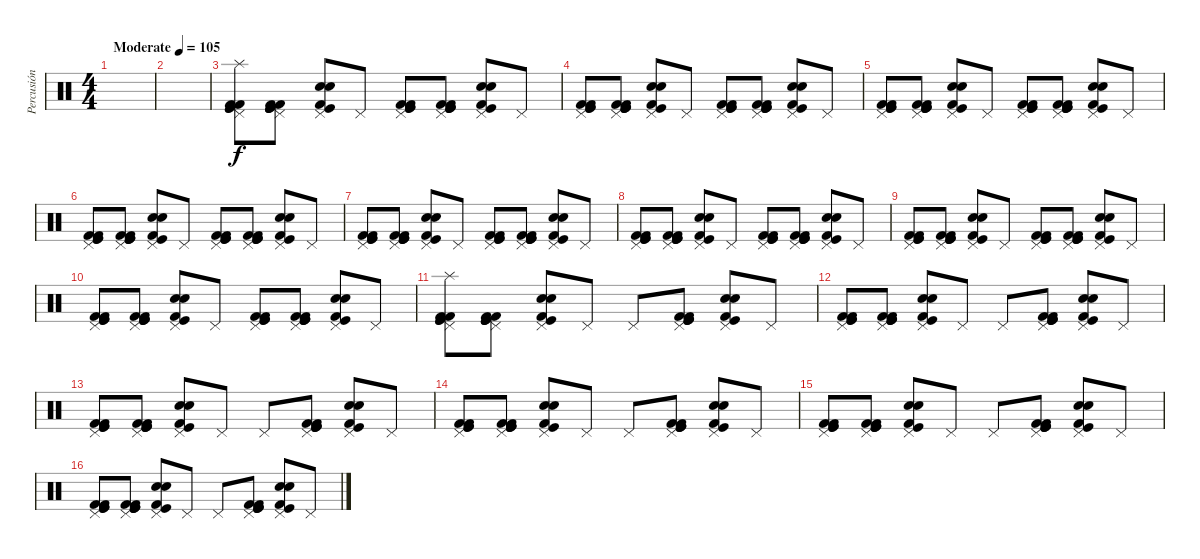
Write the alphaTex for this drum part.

\track ("Percusión" "Percusión") {instrument percussion}
\staff {score}
\articulation defaults
\ts (4 4)
\tempo (105 "Moderate")
\clef neutral
\ks c
|
|
("Kick (hit) 2" "Kick (hit)" "Pedal Hi-Hat (hit)" "Splash (hit)" "Kick (hit) 2" "Kick (hit)").8 ("Kick (hit) 2" "Kick (hit)" "Pedal Hi-Hat (hit)" "Kick (hit) 2" "Kick (hit)" "Kick (hit)").8 ("Snare (hit) 2" "Pedal Hi-Hat (hit)" "Electric Snare (hit)" "Kick (hit)" "Kick (hit) 2").8 "Pedal Hi-Hat (hit)".8 ("Kick (hit) 2" "Kick (hit)" "Pedal Hi-Hat (hit)" "Kick (hit) 2" "Kick (hit)").8 ("Kick (hit) 2" "Kick (hit)" "Pedal Hi-Hat (hit)" "Kick (hit) 2" "Kick (hit)" "Kick (hit)").8 ("Snare (hit) 2" "Pedal Hi-Hat (hit)" "Electric Snare (hit)" "Kick (hit)" "Kick (hit) 2").8 "Pedal Hi-Hat (hit)".8 |
("Kick (hit) 2" "Kick (hit)" "Pedal Hi-Hat (hit)" "Kick (hit) 2" "Kick (hit)").8 ("Kick (hit) 2" "Kick (hit)" "Pedal Hi-Hat (hit)" "Kick (hit) 2" "Kick (hit)" "Kick (hit)").8 ("Snare (hit) 2" "Pedal Hi-Hat (hit)" "Electric Snare (hit)" "Kick (hit)" "Kick (hit) 2").8 "Pedal Hi-Hat (hit)".8 ("Kick (hit) 2" "Kick (hit)" "Pedal Hi-Hat (hit)" "Kick (hit) 2" "Kick (hit)").8 ("Kick (hit) 2" "Kick (hit)" "Pedal Hi-Hat (hit)" "Kick (hit) 2" "Kick (hit)" "Kick (hit)").8 ("Snare (hit) 2" "Pedal Hi-Hat (hit)" "Electric Snare (hit)" "Kick (hit)" "Kick (hit) 2").8 "Pedal Hi-Hat (hit)".8 |
("Kick (hit) 2" "Kick (hit)" "Pedal Hi-Hat (hit)" "Kick (hit) 2" "Kick (hit)").8 ("Kick (hit) 2" "Kick (hit)" "Pedal Hi-Hat (hit)" "Kick (hit) 2" "Kick (hit)" "Kick (hit)").8 ("Snare (hit) 2" "Pedal Hi-Hat (hit)" "Electric Snare (hit)" "Kick (hit)" "Kick (hit) 2").8 "Pedal Hi-Hat (hit)".8 ("Kick (hit) 2" "Kick (hit)" "Pedal Hi-Hat (hit)" "Kick (hit) 2" "Kick (hit)").8 ("Kick (hit) 2" "Kick (hit)" "Pedal Hi-Hat (hit)" "Kick (hit) 2" "Kick (hit)" "Kick (hit)").8 ("Snare (hit) 2" "Pedal Hi-Hat (hit)" "Electric Snare (hit)" "Kick (hit)" "Kick (hit) 2").8 "Pedal Hi-Hat (hit)".8 |
("Kick (hit) 2" "Kick (hit)" "Pedal Hi-Hat (hit)" "Kick (hit) 2" "Kick (hit)").8 ("Kick (hit) 2" "Kick (hit)" "Pedal Hi-Hat (hit)" "Kick (hit) 2" "Kick (hit)" "Kick (hit)").8 ("Snare (hit) 2" "Pedal Hi-Hat (hit)" "Electric Snare (hit)" "Kick (hit)" "Kick (hit) 2").8 "Pedal Hi-Hat (hit)".8 ("Kick (hit) 2" "Kick (hit)" "Pedal Hi-Hat (hit)" "Kick (hit) 2" "Kick (hit)").8 ("Kick (hit) 2" "Kick (hit)" "Pedal Hi-Hat (hit)" "Kick (hit) 2" "Kick (hit)" "Kick (hit)").8 ("Snare (hit) 2" "Pedal Hi-Hat (hit)" "Electric Snare (hit)" "Kick (hit)" "Kick (hit) 2").8 "Pedal Hi-Hat (hit)".8 |
("Kick (hit) 2" "Kick (hit)" "Pedal Hi-Hat (hit)" "Kick (hit) 2" "Kick (hit)").8 ("Kick (hit) 2" "Kick (hit)" "Pedal Hi-Hat (hit)" "Kick (hit) 2" "Kick (hit)" "Kick (hit)").8 ("Snare (hit) 2" "Pedal Hi-Hat (hit)" "Electric Snare (hit)" "Kick (hit)" "Kick (hit) 2").8 "Pedal Hi-Hat (hit)".8 ("Kick (hit) 2" "Kick (hit)" "Pedal Hi-Hat (hit)" "Kick (hit) 2" "Kick (hit)").8 ("Kick (hit) 2" "Kick (hit)" "Pedal Hi-Hat (hit)" "Kick (hit) 2" "Kick (hit)" "Kick (hit)").8 ("Snare (hit) 2" "Pedal Hi-Hat (hit)" "Electric Snare (hit)" "Kick (hit)" "Kick (hit) 2").8 "Pedal Hi-Hat (hit)".8 |
("Kick (hit) 2" "Kick (hit)" "Pedal Hi-Hat (hit)" "Kick (hit) 2" "Kick (hit)").8 ("Kick (hit) 2" "Kick (hit)" "Pedal Hi-Hat (hit)" "Kick (hit) 2" "Kick (hit)" "Kick (hit)").8 ("Snare (hit) 2" "Pedal Hi-Hat (hit)" "Electric Snare (hit)" "Kick (hit)" "Kick (hit) 2").8 "Pedal Hi-Hat (hit)".8 ("Kick (hit) 2" "Kick (hit)" "Pedal Hi-Hat (hit)" "Kick (hit) 2" "Kick (hit)").8 ("Kick (hit) 2" "Kick (hit)" "Pedal Hi-Hat (hit)" "Kick (hit) 2" "Kick (hit)" "Kick (hit)").8 ("Snare (hit) 2" "Pedal Hi-Hat (hit)" "Electric Snare (hit)" "Kick (hit)" "Kick (hit) 2").8 "Pedal Hi-Hat (hit)".8 |
("Kick (hit) 2" "Kick (hit)" "Pedal Hi-Hat (hit)" "Kick (hit) 2" "Kick (hit)").8 ("Kick (hit) 2" "Kick (hit)" "Pedal Hi-Hat (hit)" "Kick (hit) 2" "Kick (hit)" "Kick (hit)").8 ("Snare (hit) 2" "Pedal Hi-Hat (hit)" "Electric Snare (hit)" "Kick (hit)" "Kick (hit) 2").8 "Pedal Hi-Hat (hit)".8 ("Kick (hit) 2" "Kick (hit)" "Pedal Hi-Hat (hit)" "Kick (hit) 2" "Kick (hit)").8 ("Kick (hit) 2" "Kick (hit)" "Pedal Hi-Hat (hit)" "Kick (hit) 2" "Kick (hit)" "Kick (hit)").8 ("Snare (hit) 2" "Pedal Hi-Hat (hit)" "Electric Snare (hit)" "Kick (hit)" "Kick (hit) 2").8 "Pedal Hi-Hat (hit)".8 |
("Kick (hit) 2" "Kick (hit)" "Pedal Hi-Hat (hit)" "Kick (hit) 2" "Kick (hit)").8 ("Kick (hit) 2" "Kick (hit)" "Pedal Hi-Hat (hit)" "Kick (hit) 2" "Kick (hit)" "Kick (hit)").8 ("Snare (hit) 2" "Pedal Hi-Hat (hit)" "Electric Snare (hit)" "Kick (hit)" "Kick (hit) 2").8 "Pedal Hi-Hat (hit)".8 ("Kick (hit) 2" "Kick (hit)" "Pedal Hi-Hat (hit)" "Kick (hit) 2" "Kick (hit)").8 ("Kick (hit) 2" "Kick (hit)" "Pedal Hi-Hat (hit)" "Kick (hit) 2" "Kick (hit)" "Kick (hit)").8 ("Snare (hit) 2" "Pedal Hi-Hat (hit)" "Electric Snare (hit)" "Kick (hit)" "Kick (hit) 2").8 "Pedal Hi-Hat (hit)".8 |
("Kick (hit) 2" "Kick (hit)" "Pedal Hi-Hat (hit)" "Splash (hit)" "Kick (hit) 2" "Kick (hit)").8 ("Kick (hit) 2" "Kick (hit)" "Pedal Hi-Hat (hit)" "Kick (hit) 2" "Kick (hit)" "Kick (hit)").8 ("Snare (hit) 2" "Pedal Hi-Hat (hit)" "Electric Snare (hit)" "Kick (hit)" "Kick (hit) 2").8 "Pedal Hi-Hat (hit)".8 "Pedal Hi-Hat (hit)".8 ("Kick (hit) 2" "Kick (hit)" "Pedal Hi-Hat (hit)" "Kick (hit) 2" "Kick (hit)" "Kick (hit)").8 ("Snare (hit) 2" "Pedal Hi-Hat (hit)" "Electric Snare (hit)" "Kick (hit)" "Kick (hit) 2").8 "Pedal Hi-Hat (hit)".8 |
("Kick (hit) 2" "Kick (hit)" "Pedal Hi-Hat (hit)" "Kick (hit) 2" "Kick (hit)").8 ("Kick (hit) 2" "Kick (hit)" "Pedal Hi-Hat (hit)" "Kick (hit) 2" "Kick (hit)" "Kick (hit)").8 ("Snare (hit) 2" "Pedal Hi-Hat (hit)" "Electric Snare (hit)" "Kick (hit)" "Kick (hit) 2").8 "Pedal Hi-Hat (hit)".8 "Pedal Hi-Hat (hit)".8 ("Kick (hit) 2" "Kick (hit)" "Pedal Hi-Hat (hit)" "Kick (hit) 2" "Kick (hit)" "Kick (hit)").8 ("Snare (hit) 2" "Pedal Hi-Hat (hit)" "Electric Snare (hit)" "Kick (hit)" "Kick (hit) 2").8 "Pedal Hi-Hat (hit)".8 |
("Kick (hit) 2" "Kick (hit)" "Pedal Hi-Hat (hit)" "Kick (hit) 2" "Kick (hit)").8 ("Kick (hit) 2" "Kick (hit)" "Pedal Hi-Hat (hit)" "Kick (hit) 2" "Kick (hit)" "Kick (hit)").8 ("Snare (hit) 2" "Pedal Hi-Hat (hit)" "Electric Snare (hit)" "Kick (hit)" "Kick (hit) 2").8 "Pedal Hi-Hat (hit)".8 "Pedal Hi-Hat (hit)".8 ("Kick (hit) 2" "Kick (hit)" "Pedal Hi-Hat (hit)" "Kick (hit) 2" "Kick (hit)" "Kick (hit)").8 ("Snare (hit) 2" "Pedal Hi-Hat (hit)" "Electric Snare (hit)" "Kick (hit)" "Kick (hit) 2").8 "Pedal Hi-Hat (hit)".8 |
("Kick (hit) 2" "Kick (hit)" "Pedal Hi-Hat (hit)" "Kick (hit) 2" "Kick (hit)").8 ("Kick (hit) 2" "Kick (hit)" "Pedal Hi-Hat (hit)" "Kick (hit) 2" "Kick (hit)" "Kick (hit)").8 ("Snare (hit) 2" "Pedal Hi-Hat (hit)" "Electric Snare (hit)" "Kick (hit)" "Kick (hit) 2").8 "Pedal Hi-Hat (hit)".8 "Pedal Hi-Hat (hit)".8 ("Kick (hit) 2" "Kick (hit)" "Pedal Hi-Hat (hit)" "Kick (hit) 2" "Kick (hit)" "Kick (hit)").8 ("Snare (hit) 2" "Pedal Hi-Hat (hit)" "Electric Snare (hit)" "Kick (hit)" "Kick (hit) 2").8 "Pedal Hi-Hat (hit)".8 |
("Kick (hit) 2" "Kick (hit)" "Pedal Hi-Hat (hit)" "Kick (hit) 2" "Kick (hit)").8 ("Kick (hit) 2" "Kick (hit)" "Pedal Hi-Hat (hit)" "Kick (hit) 2" "Kick (hit)" "Kick (hit)").8 ("Snare (hit) 2" "Pedal Hi-Hat (hit)" "Electric Snare (hit)" "Kick (hit)" "Kick (hit) 2").8 "Pedal Hi-Hat (hit)".8 "Pedal Hi-Hat (hit)".8 ("Kick (hit) 2" "Kick (hit)" "Pedal Hi-Hat (hit)" "Kick (hit) 2" "Kick (hit)" "Kick (hit)").8 ("Snare (hit) 2" "Pedal Hi-Hat (hit)" "Electric Snare (hit)" "Kick (hit)" "Kick (hit) 2").8 "Pedal Hi-Hat (hit)".8 |
("Kick (hit) 2" "Kick (hit)" "Pedal Hi-Hat (hit)" "Kick (hit) 2" "Kick (hit)").8 ("Kick (hit) 2" "Kick (hit)" "Pedal Hi-Hat (hit)" "Kick (hit) 2" "Kick (hit)" "Kick (hit)").8 ("Snare (hit) 2" "Pedal Hi-Hat (hit)" "Electric Snare (hit)" "Kick (hit)" "Kick (hit) 2").8 "Pedal Hi-Hat (hit)".8 "Pedal Hi-Hat (hit)".8 ("Kick (hit) 2" "Kick (hit)" "Pedal Hi-Hat (hit)" "Kick (hit) 2" "Kick (hit)" "Kick (hit)").8 ("Snare (hit) 2" "Pedal Hi-Hat (hit)" "Electric Snare (hit)" "Kick (hit)" "Kick (hit) 2").8 "Pedal Hi-Hat (hit)".8
